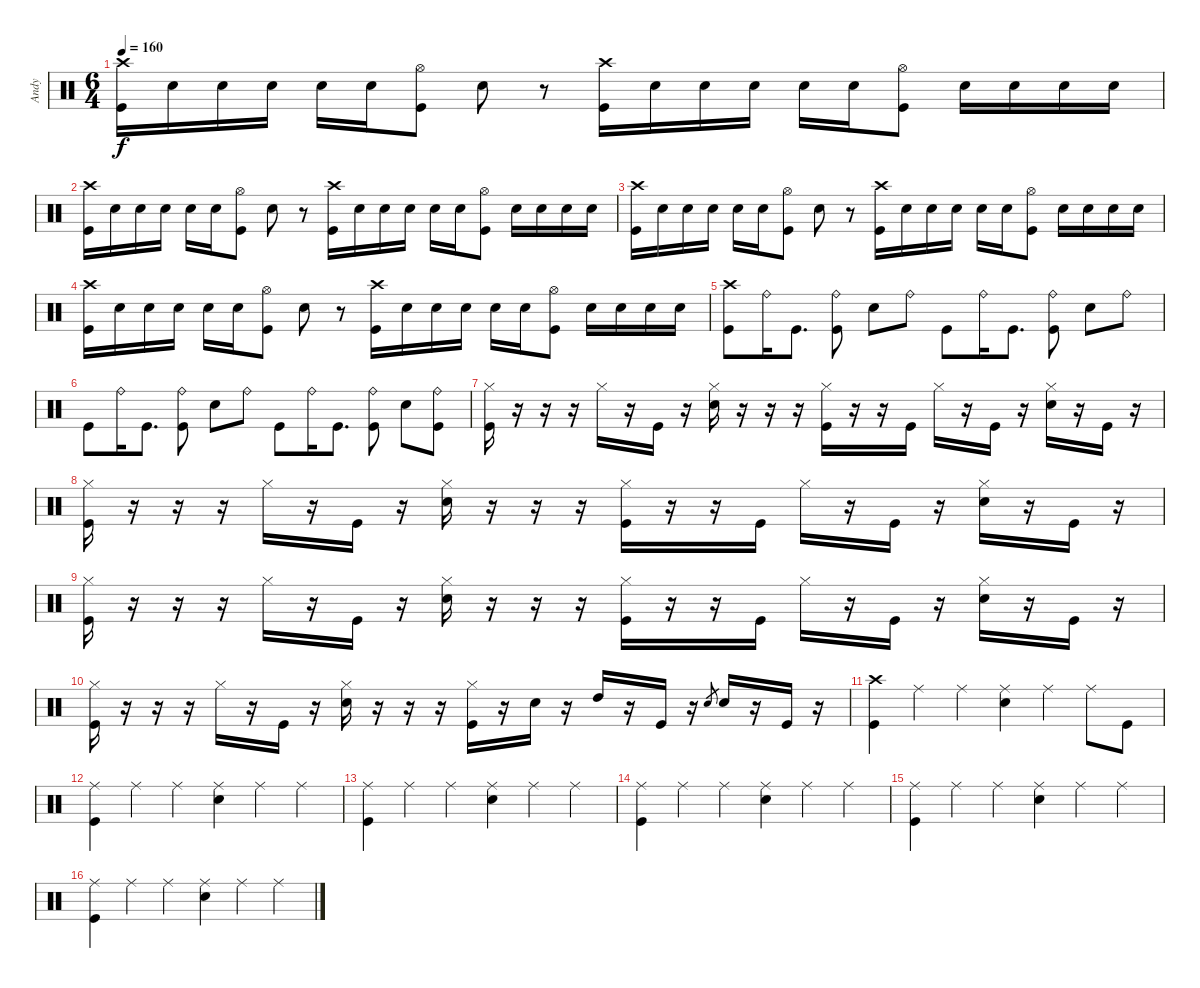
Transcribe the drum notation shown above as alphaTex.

\track ("Andy" "Andy") {instrument percussion}
\staff {score}
\articulation defaults
\ts (6 4)
\tempo 160
\clef neutral
\ks c
("Kick (hit)" "Crash high (hit)").16{dy f} "Snare (hit) 2".16 "Snare (hit) 2".16 "Snare (hit) 2".16 "Snare (hit) 2".16 "Snare (hit) 2".16 ("Kick (hit)" "Hi-Hat (open)").8 "Snare (hit) 2".8 r.8 ("Kick (hit)" "Crash high (hit)").16 "Snare (hit) 2".16 "Snare (hit) 2".16 "Snare (hit) 2".16 "Snare (hit) 2".16 "Snare (hit) 2".16 ("Kick (hit)" "Hi-Hat (open)").8 "Snare (hit) 2".16 "Snare (hit) 2".16 "Snare (hit) 2".16 "Snare (hit) 2".16 |
("Kick (hit)" "Crash high (hit)").16 "Snare (hit) 2".16 "Snare (hit) 2".16 "Snare (hit) 2".16 "Snare (hit) 2".16 "Snare (hit) 2".16 ("Kick (hit)" "Hi-Hat (open)").8 "Snare (hit) 2".8 r.8 ("Kick (hit)" "Crash high (hit)").16 "Snare (hit) 2".16 "Snare (hit) 2".16 "Snare (hit) 2".16 "Snare (hit) 2".16 "Snare (hit) 2".16 ("Kick (hit)" "Hi-Hat (open)").8 "Snare (hit) 2".16 "Snare (hit) 2".16 "Snare (hit) 2".16 "Snare (hit) 2".16 |
("Kick (hit)" "Crash high (hit)").16 "Snare (hit) 2".16 "Snare (hit) 2".16 "Snare (hit) 2".16 "Snare (hit) 2".16 "Snare (hit) 2".16 ("Kick (hit)" "Hi-Hat (open)").8 "Snare (hit) 2".8 r.8 ("Kick (hit)" "Crash high (hit)").16 "Snare (hit) 2".16 "Snare (hit) 2".16 "Snare (hit) 2".16 "Snare (hit) 2".16 "Snare (hit) 2".16 ("Kick (hit)" "Hi-Hat (open)").8 "Snare (hit) 2".16 "Snare (hit) 2".16 "Snare (hit) 2".16 "Snare (hit) 2".16 |
("Kick (hit)" "Crash high (hit)").16 "Snare (hit) 2".16 "Snare (hit) 2".16 "Snare (hit) 2".16 "Snare (hit) 2".16 "Snare (hit) 2".16 ("Kick (hit)" "Hi-Hat (open)").8 "Snare (hit) 2".8 r.8 ("Kick (hit)" "Crash high (hit)").16 "Snare (hit) 2".16 "Snare (hit) 2".16 "Snare (hit) 2".16 "Snare (hit) 2".16 "Snare (hit) 2".16 ("Kick (hit)" "Hi-Hat (open)").8 "Snare (hit) 2".16 "Snare (hit) 2".16 "Snare (hit) 2".16 "Snare (hit) 2".16 |
("Kick (hit)" "Crash high (hit)").8 "Ride (bell)".16 "Kick (hit)".8{d} ("Ride (bell)" "Kick (hit)").8 "Snare (hit) 2".8 "Ride (bell)".8 "Kick (hit)".8 "Ride (bell)".16 "Kick (hit)".8{d} ("Ride (bell)" "Kick (hit)").8 "Snare (hit) 2".8 "Ride (bell)".8 |
"Kick (hit)".8 "Ride (bell)".16 "Kick (hit)".8{d} ("Ride (bell)" "Kick (hit)").8 "Snare (hit) 2".8 "Ride (bell)".8 "Kick (hit)".8 "Ride (bell)".16 "Kick (hit)".8{d} ("Ride (bell)" "Kick (hit)").8 "Snare (hit) 2".8 ("Ride (bell)" "Kick (hit)").8 |
("Hi-Hat (closed)" "Kick (hit)").16 r.16 r.16 r.16 "Hi-Hat (closed)".16 r.16 "Kick (hit)".16 r.16 ("Hi-Hat (closed)" "Snare (hit) 2").16 r.16 r.16 r.16 ("Hi-Hat (closed)" "Kick (hit)").16 r.16 r.16 "Kick (hit)".16 "Hi-Hat (closed)".16 r.16 "Kick (hit)".16 r.16 ("Hi-Hat (closed)" "Snare (hit) 2").16 r.16 "Kick (hit)".16 r.16 |
("Hi-Hat (closed)" "Kick (hit)").16 r.16 r.16 r.16 "Hi-Hat (closed)".16 r.16 "Kick (hit)".16 r.16 ("Hi-Hat (closed)" "Snare (hit) 2").16 r.16 r.16 r.16 ("Hi-Hat (closed)" "Kick (hit)").16 r.16 r.16 "Kick (hit)".16 "Hi-Hat (closed)".16 r.16 "Kick (hit)".16 r.16 ("Hi-Hat (closed)" "Snare (hit) 2").16 r.16 "Kick (hit)".16 r.16 |
("Hi-Hat (closed)" "Kick (hit)").16 r.16 r.16 r.16 "Hi-Hat (closed)".16 r.16 "Kick (hit)".16 r.16 ("Hi-Hat (closed)" "Snare (hit) 2").16 r.16 r.16 r.16 ("Hi-Hat (closed)" "Kick (hit)").16 r.16 r.16 "Kick (hit)".16 "Hi-Hat (closed)".16 r.16 "Kick (hit)".16 r.16 ("Hi-Hat (closed)" "Snare (hit) 2").16 r.16 "Kick (hit)".16 r.16 |
("Hi-Hat (closed)" "Kick (hit)").16 r.16 r.16 r.16 "Hi-Hat (closed)".16 r.16 "Kick (hit)".16 r.16 ("Hi-Hat (closed)" "Snare (hit) 2").16 r.16 r.16 r.16 ("Hi-Hat (closed)" "Kick (hit)").16 r.16 "Snare (hit) 2".16 r.16 "High Tom (hit)".16 r.16 "Kick (hit)".16 r.16 "Snare (hit) 2".8{gr} "Snare (hit) 2".16 r.16 "Kick (hit)".16 r.16 |
("Kick (hit)" "Crash high (hit)").4 "Ride (middle)".4 "Ride (middle)".4 ("Ride (middle)" "Snare (hit) 2").4 "Ride (middle)".4 "Ride (middle)".8 "Kick (hit)".8 |
("Kick (hit)" "Ride (middle)").4 "Ride (middle)".4 "Ride (middle)".4 ("Ride (middle)" "Snare (hit) 2").4 "Ride (middle)".4 "Ride (middle)".4 |
("Kick (hit)" "Ride (middle)").4 "Ride (middle)".4 "Ride (middle)".4 ("Ride (middle)" "Snare (hit) 2").4 "Ride (middle)".4 "Ride (middle)".4 |
("Kick (hit)" "Ride (middle)").4 "Ride (middle)".4 "Ride (middle)".4 ("Ride (middle)" "Snare (hit) 2").4 "Ride (middle)".4 "Ride (middle)".4 |
("Kick (hit)" "Ride (middle)").4 "Ride (middle)".4 "Ride (middle)".4 ("Ride (middle)" "Snare (hit) 2").4 "Ride (middle)".4 "Ride (middle)".4 |
("Kick (hit)" "Ride (middle)").4 "Ride (middle)".4 "Ride (middle)".4 ("Ride (middle)" "Snare (hit) 2").4 "Ride (middle)".4 "Ride (middle)".4
